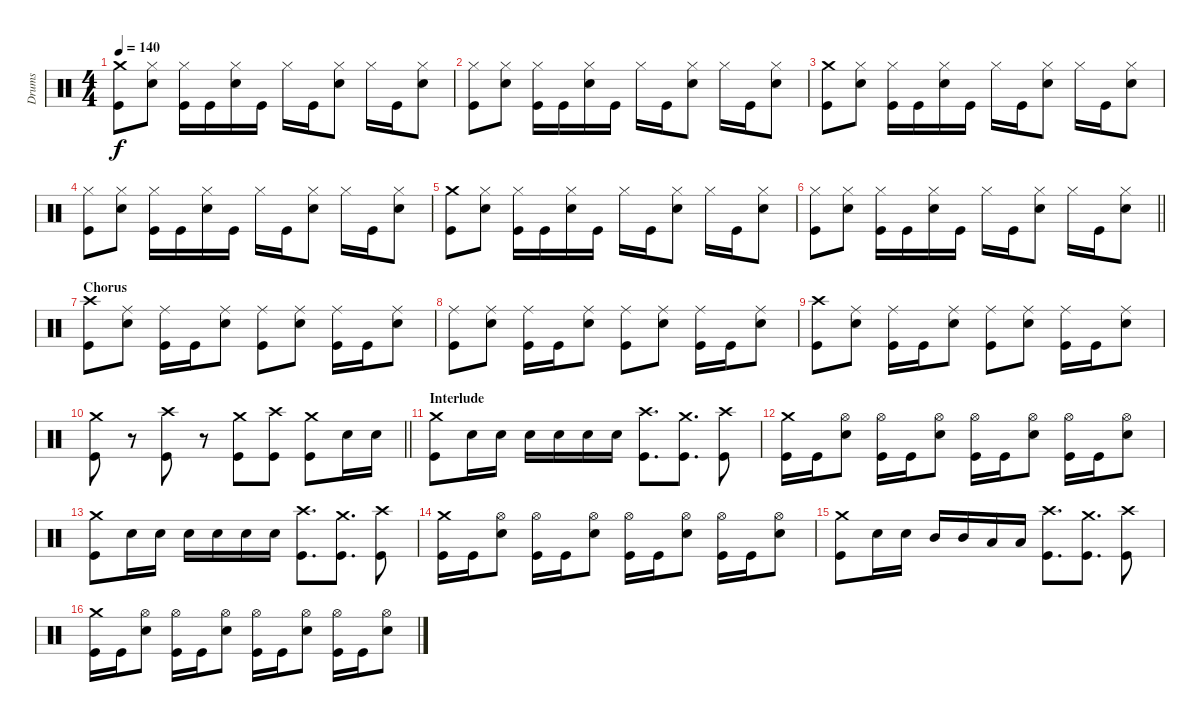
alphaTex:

\track ("Drums" "Drums") {instrument percussion}
\staff {score}
\articulation defaults
\ts (4 4)
\tempo 140
\clef neutral
\ks c
("Crash medium (hit)" "Kick (hit)").8{dy f} ("Hi-Hat (closed)" "Snare (hit) 2").8 ("Hi-Hat (closed)" "Kick (hit)").16 "Kick (hit)".16 ("Hi-Hat (closed)" "Snare (hit) 2").16 "Kick (hit)".16 "Hi-Hat (closed)".16 "Kick (hit)".16 ("Hi-Hat (closed)" "Snare (hit) 2").8 "Hi-Hat (closed)".16 "Kick (hit)".16 ("Hi-Hat (closed)" "Snare (hit) 2").8 |
("Hi-Hat (closed)" "Kick (hit)").8 ("Hi-Hat (closed)" "Snare (hit) 2").8 ("Hi-Hat (closed)" "Kick (hit)").16 "Kick (hit)".16 ("Hi-Hat (closed)" "Snare (hit) 2").16 "Kick (hit)".16 "Hi-Hat (closed)".16 "Kick (hit)".16 ("Hi-Hat (closed)" "Snare (hit) 2").8 "Hi-Hat (closed)".16 "Kick (hit)".16 ("Hi-Hat (closed)" "Snare (hit) 2").8 |
("Crash medium (hit)" "Kick (hit)").8 ("Hi-Hat (closed)" "Snare (hit) 2").8 ("Hi-Hat (closed)" "Kick (hit)").16 "Kick (hit)".16 ("Hi-Hat (closed)" "Snare (hit) 2").16 "Kick (hit)".16 "Hi-Hat (closed)".16 "Kick (hit)".16 ("Hi-Hat (closed)" "Snare (hit) 2").8 "Hi-Hat (closed)".16 "Kick (hit)".16 ("Hi-Hat (closed)" "Snare (hit) 2").8 |
("Hi-Hat (closed)" "Kick (hit)").8 ("Hi-Hat (closed)" "Snare (hit) 2").8 ("Hi-Hat (closed)" "Kick (hit)").16 "Kick (hit)".16 ("Hi-Hat (closed)" "Snare (hit) 2").16 "Kick (hit)".16 "Hi-Hat (closed)".16 "Kick (hit)".16 ("Hi-Hat (closed)" "Snare (hit) 2").8 "Hi-Hat (closed)".16 "Kick (hit)".16 ("Hi-Hat (closed)" "Snare (hit) 2").8 |
("Crash medium (hit)" "Kick (hit)").8 ("Hi-Hat (closed)" "Snare (hit) 2").8 ("Hi-Hat (closed)" "Kick (hit)").16 "Kick (hit)".16 ("Hi-Hat (closed)" "Snare (hit) 2").16 "Kick (hit)".16 "Hi-Hat (closed)".16 "Kick (hit)".16 ("Hi-Hat (closed)" "Snare (hit) 2").8 "Hi-Hat (closed)".16 "Kick (hit)".16 ("Hi-Hat (closed)" "Snare (hit) 2").8 |
\barLineRight lightlight
("Hi-Hat (closed)" "Kick (hit)").8 ("Hi-Hat (closed)" "Snare (hit) 2").8 ("Hi-Hat (closed)" "Kick (hit)").16 "Kick (hit)".16 ("Hi-Hat (closed)" "Snare (hit) 2").16 "Kick (hit)".16 "Hi-Hat (closed)".16 "Kick (hit)".16 ("Hi-Hat (closed)" "Snare (hit) 2").8 "Hi-Hat (closed)".16 "Kick (hit)".16 ("Hi-Hat (closed)" "Snare (hit) 2").8 |
\section ("" "Chorus")
("Crash high (hit)" "Kick (hit)").8 ("Ride (middle)" "Snare (hit) 2").8 ("Ride (middle)" "Kick (hit)").16 "Kick (hit)".16 ("Ride (middle)" "Snare (hit) 2").8 ("Ride (middle)" "Kick (hit)").8 ("Ride (middle)" "Snare (hit) 2").8 ("Ride (middle)" "Kick (hit)").16 "Kick (hit)".16 ("Ride (middle)" "Snare (hit) 2").8 |
("Ride (middle)" "Kick (hit)").8 ("Ride (middle)" "Snare (hit) 2").8 ("Ride (middle)" "Kick (hit)").16 "Kick (hit)".16 ("Ride (middle)" "Snare (hit) 2").8 ("Ride (middle)" "Kick (hit)").8 ("Ride (middle)" "Snare (hit) 2").8 ("Ride (middle)" "Kick (hit)").16 "Kick (hit)".16 ("Ride (middle)" "Snare (hit) 2").8 |
("Crash high (hit)" "Kick (hit)").8 ("Ride (middle)" "Snare (hit) 2").8 ("Ride (middle)" "Kick (hit)").16 "Kick (hit)".16 ("Ride (middle)" "Snare (hit) 2").8 ("Ride (middle)" "Kick (hit)").8 ("Ride (middle)" "Snare (hit) 2").8 ("Ride (middle)" "Kick (hit)").16 "Kick (hit)".16 ("Ride (middle)" "Snare (hit) 2").8 |
\barLineRight lightlight
("Crash medium (hit)" "Kick (hit)").8 r.8 ("Crash high (hit)" "Kick (hit)").8 r.8 ("Crash medium (hit)" "Kick (hit)").8 ("Crash high (hit)" "Kick (hit)").8 ("Crash medium (hit)" "Kick (hit)").8 "Snare (hit) 2".16 "Snare (hit) 2".16 |
\section ("" "Interlude")
("Crash medium (hit)" "Kick (hit)").8 "Snare (hit) 2".16 "Snare (hit) 2".16 "Snare (hit) 2".16 "Snare (hit) 2".16 "Snare (hit) 2".16 "Snare (hit) 2".16 ("Crash high (hit)" "Kick (hit)").8{d} ("Crash medium (hit)" "Kick (hit)").8{d} ("Crash high (hit)" "Kick (hit)").8 |
("Crash medium (hit)" "Kick (hit)").16 "Kick (hit)".16 ("Hi-Hat (open)" "Snare (hit) 2").8 ("Hi-Hat (open)" "Kick (hit)").16 "Kick (hit)".16 ("Hi-Hat (open)" "Snare (hit) 2").8 ("Hi-Hat (open)" "Kick (hit)").16 "Kick (hit)".16 ("Hi-Hat (open)" "Snare (hit) 2").8 ("Hi-Hat (open)" "Kick (hit)").16 "Kick (hit)".16 ("Hi-Hat (open)" "Snare (hit) 2").8 |
("Crash medium (hit)" "Kick (hit)").8 "Snare (hit) 2".16 "Snare (hit) 2".16 "Snare (hit) 2".16 "Snare (hit) 2".16 "Snare (hit) 2".16 "Snare (hit) 2".16 ("Crash high (hit)" "Kick (hit)").8{d} ("Crash medium (hit)" "Kick (hit)").8{d} ("Crash high (hit)" "Kick (hit)").8 |
("Crash medium (hit)" "Kick (hit)").16 "Kick (hit)".16 ("Hi-Hat (open)" "Snare (hit) 2").8 ("Hi-Hat (open)" "Kick (hit)").16 "Kick (hit)".16 ("Hi-Hat (open)" "Snare (hit) 2").8 ("Hi-Hat (open)" "Kick (hit)").16 "Kick (hit)".16 ("Hi-Hat (open)" "Snare (hit) 2").8 ("Hi-Hat (open)" "Kick (hit)").16 "Kick (hit)".16 ("Hi-Hat (open)" "Snare (hit) 2").8 |
("Crash medium (hit)" "Kick (hit)").8 "Snare (hit) 2".16 "Snare (hit) 2".16 "Mid Tom (hit)".16 "Mid Tom (hit)".16 "Low Tom (hit)".16 "Low Tom (hit)".16 ("Crash high (hit)" "Kick (hit)").8{d} ("Crash medium (hit)" "Kick (hit)").8{d} ("Crash high (hit)" "Kick (hit)").8 |
("Crash medium (hit)" "Kick (hit)").16 "Kick (hit)".16 ("Hi-Hat (open)" "Snare (hit) 2").8 ("Hi-Hat (open)" "Kick (hit)").16 "Kick (hit)".16 ("Hi-Hat (open)" "Snare (hit) 2").8 ("Hi-Hat (open)" "Kick (hit)").16 "Kick (hit)".16 ("Hi-Hat (open)" "Snare (hit) 2").8 ("Hi-Hat (open)" "Kick (hit)").16 "Kick (hit)".16 ("Hi-Hat (open)" "Snare (hit) 2").8
